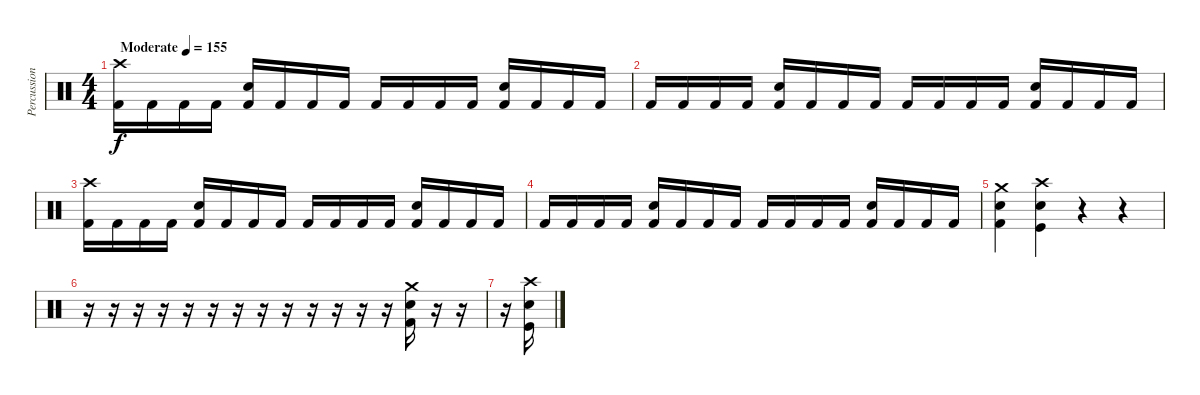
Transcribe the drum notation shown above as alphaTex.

\track ("Percussion" "Percussion") {instrument percussion}
\staff {score}
\articulation defaults
\ts (4 4)
\tempo (155 "Moderate")
\clef neutral
\ks c
("Crash high (hit)" "Kick (hit) 2").16{dy f} "Kick (hit) 2".16 "Kick (hit) 2".16 "Kick (hit) 2".16 ("Electric Snare (hit)" "Kick (hit) 2").16 "Kick (hit) 2".16 "Kick (hit) 2".16 "Kick (hit) 2".16 "Kick (hit) 2".16 "Kick (hit) 2".16 "Kick (hit) 2".16 "Kick (hit) 2".16 ("Electric Snare (hit)" "Kick (hit) 2").16 "Kick (hit) 2".16 "Kick (hit) 2".16 "Kick (hit) 2".16 |
"Kick (hit) 2".16 "Kick (hit) 2".16 "Kick (hit) 2".16 "Kick (hit) 2".16 ("Electric Snare (hit)" "Kick (hit) 2").16 "Kick (hit) 2".16 "Kick (hit) 2".16 "Kick (hit) 2".16 "Kick (hit) 2".16 "Kick (hit) 2".16 "Kick (hit) 2".16 "Kick (hit) 2".16 ("Electric Snare (hit)" "Kick (hit) 2").16 "Kick (hit) 2".16 "Kick (hit) 2".16 "Kick (hit) 2".16 |
("Crash high (hit)" "Kick (hit) 2").16 "Kick (hit) 2".16 "Kick (hit) 2".16 "Kick (hit) 2".16 ("Electric Snare (hit)" "Kick (hit) 2").16 "Kick (hit) 2".16 "Kick (hit) 2".16 "Kick (hit) 2".16 "Kick (hit) 2".16 "Kick (hit) 2".16 "Kick (hit) 2".16 "Kick (hit) 2".16 ("Electric Snare (hit)" "Kick (hit) 2").16 "Kick (hit) 2".16 "Kick (hit) 2".16 "Kick (hit) 2".16 |
"Kick (hit) 2".16 "Kick (hit) 2".16 "Kick (hit) 2".16 "Kick (hit) 2".16 ("Electric Snare (hit)" "Kick (hit) 2").16 "Kick (hit) 2".16 "Kick (hit) 2".16 "Kick (hit) 2".16 "Kick (hit) 2".16 "Kick (hit) 2".16 "Kick (hit) 2".16 "Kick (hit) 2".16 ("Electric Snare (hit)" "Kick (hit) 2").16 "Kick (hit) 2".16 "Kick (hit) 2".16 "Kick (hit) 2".16 |
("Crash medium (hit)" "Electric Snare (hit)" "Kick (hit) 2").4 ("Crash high (hit)" "Electric Snare (hit)" "Kick (hit)").4 r.4 r.4 |
r.16 r.16 r.16 r.16 r.16 r.16 r.16 r.16 r.16 r.16 r.16 r.16 r.16 ("Crash medium (hit)" "Electric Snare (hit)" "Kick (hit) 2").16 r.16 r.16 |
r.16 ("Crash high (hit)" "Electric Snare (hit)" "Kick (hit)").16
